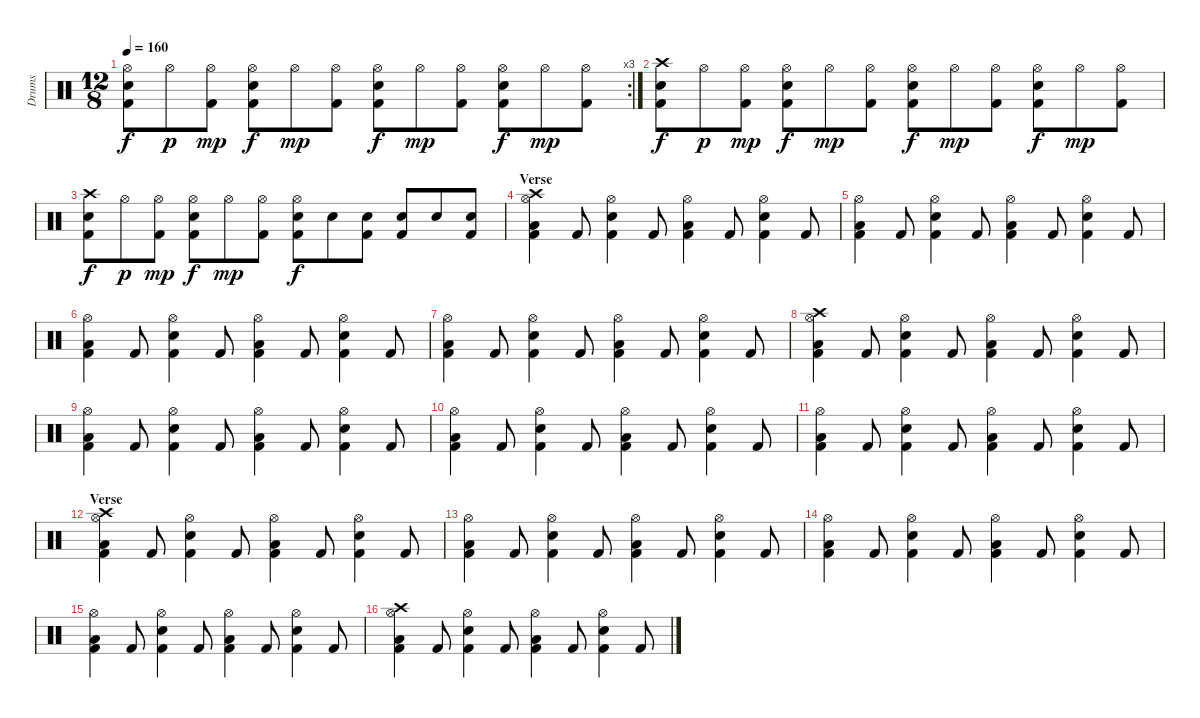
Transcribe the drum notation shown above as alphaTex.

\track ("Drums" "Drums") {instrument percussion}
\staff {score}
\articulation defaults
\rc 3
\ts (12 8)
\tempo 160
\clef neutral
\ks c
("Hi-Hat (open)" "Electric Snare (hit)" "Kick (hit) 2").8{dy f} "Hi-Hat (open)".8{dy p} ("Hi-Hat (open)" "Kick (hit) 2").8{dy mp} ("Hi-Hat (open)" "Electric Snare (hit)" "Kick (hit) 2").8{dy f} "Hi-Hat (open)".8{dy mp} ("Hi-Hat (open)" "Kick (hit) 2").8 ("Hi-Hat (open)" "Electric Snare (hit)" "Kick (hit) 2").8{dy f} "Hi-Hat (open)".8{dy mp} ("Hi-Hat (open)" "Kick (hit) 2").8 ("Hi-Hat (open)" "Electric Snare (hit)" "Kick (hit) 2").8{dy f} "Hi-Hat (open)".8{dy mp} ("Hi-Hat (open)" "Kick (hit) 2").8 |
("Crash high (hit)" "Electric Snare (hit)" "Kick (hit) 2").8{dy f} "Hi-Hat (open)".8{dy p} ("Hi-Hat (open)" "Kick (hit) 2").8{dy mp} ("Hi-Hat (open)" "Electric Snare (hit)" "Kick (hit) 2").8{dy f} "Hi-Hat (open)".8{dy mp} ("Hi-Hat (open)" "Kick (hit) 2").8 ("Hi-Hat (open)" "Electric Snare (hit)" "Kick (hit) 2").8{dy f} "Hi-Hat (open)".8{dy mp} ("Hi-Hat (open)" "Kick (hit) 2").8 ("Hi-Hat (open)" "Electric Snare (hit)" "Kick (hit) 2").8{dy f} "Hi-Hat (open)".8{dy mp} ("Hi-Hat (open)" "Kick (hit) 2").8 |
("Crash high (hit)" "Electric Snare (hit)" "Kick (hit) 2").8{dy f} "Hi-Hat (open)".8{dy p} ("Hi-Hat (open)" "Kick (hit) 2").8{dy mp} ("Hi-Hat (open)" "Electric Snare (hit)" "Kick (hit) 2").8{dy f} "Hi-Hat (open)".8{dy mp} ("Hi-Hat (open)" "Kick (hit) 2").8 ("Hi-Hat (open)" "Electric Snare (hit)" "Kick (hit) 2").8{dy f} "Electric Snare (hit)".8 ("Electric Snare (hit)" "Kick (hit) 2").8 ("Electric Snare (hit)" "Kick (hit) 2").8 "Electric Snare (hit)".8 ("Electric Snare (hit)" "Kick (hit) 2").8 |
\section ("" "Verse")
("Crash high (hit)" "Hi-Hat (open)" "Low Tom (hit)" "Kick (hit) 2").4 "Kick (hit) 2".8 ("Hi-Hat (open)" "Electric Snare (hit)" "Kick (hit) 2").4 "Kick (hit) 2".8 ("Hi-Hat (open)" "Low Tom (hit)" "Kick (hit) 2").4 "Kick (hit) 2".8 ("Hi-Hat (open)" "Electric Snare (hit)" "Kick (hit) 2").4 "Kick (hit) 2".8 |
("Hi-Hat (open)" "Low Tom (hit)" "Kick (hit) 2").4 "Kick (hit) 2".8 ("Hi-Hat (open)" "Electric Snare (hit)" "Kick (hit) 2").4 "Kick (hit) 2".8 ("Hi-Hat (open)" "Low Tom (hit)" "Kick (hit) 2").4 "Kick (hit) 2".8 ("Hi-Hat (open)" "Electric Snare (hit)" "Kick (hit) 2").4 "Kick (hit) 2".8 |
("Hi-Hat (open)" "Low Tom (hit)" "Kick (hit) 2").4 "Kick (hit) 2".8 ("Hi-Hat (open)" "Electric Snare (hit)" "Kick (hit) 2").4 "Kick (hit) 2".8 ("Hi-Hat (open)" "Low Tom (hit)" "Kick (hit) 2").4 "Kick (hit) 2".8 ("Hi-Hat (open)" "Electric Snare (hit)" "Kick (hit) 2").4 "Kick (hit) 2".8 |
("Hi-Hat (open)" "Low Tom (hit)" "Kick (hit) 2").4 "Kick (hit) 2".8 ("Hi-Hat (open)" "Electric Snare (hit)" "Kick (hit) 2").4 "Kick (hit) 2".8 ("Hi-Hat (open)" "Low Tom (hit)" "Kick (hit) 2").4 "Kick (hit) 2".8 ("Hi-Hat (open)" "Electric Snare (hit)" "Kick (hit) 2").4 "Kick (hit) 2".8 |
("Crash high (hit)" "Hi-Hat (open)" "Low Tom (hit)" "Kick (hit) 2").4 "Kick (hit) 2".8 ("Hi-Hat (open)" "Electric Snare (hit)" "Kick (hit) 2").4 "Kick (hit) 2".8 ("Hi-Hat (open)" "Low Tom (hit)" "Kick (hit) 2").4 "Kick (hit) 2".8 ("Hi-Hat (open)" "Electric Snare (hit)" "Kick (hit) 2").4 "Kick (hit) 2".8 |
("Hi-Hat (open)" "Low Tom (hit)" "Kick (hit) 2").4 "Kick (hit) 2".8 ("Hi-Hat (open)" "Electric Snare (hit)" "Kick (hit) 2").4 "Kick (hit) 2".8 ("Hi-Hat (open)" "Low Tom (hit)" "Kick (hit) 2").4 "Kick (hit) 2".8 ("Hi-Hat (open)" "Electric Snare (hit)" "Kick (hit) 2").4 "Kick (hit) 2".8 |
("Hi-Hat (open)" "Low Tom (hit)" "Kick (hit) 2").4 "Kick (hit) 2".8 ("Hi-Hat (open)" "Electric Snare (hit)" "Kick (hit) 2").4 "Kick (hit) 2".8 ("Hi-Hat (open)" "Low Tom (hit)" "Kick (hit) 2").4 "Kick (hit) 2".8 ("Hi-Hat (open)" "Electric Snare (hit)" "Kick (hit) 2").4 "Kick (hit) 2".8 |
("Hi-Hat (open)" "Low Tom (hit)" "Kick (hit) 2").4 "Kick (hit) 2".8 ("Hi-Hat (open)" "Electric Snare (hit)" "Kick (hit) 2").4 "Kick (hit) 2".8 ("Hi-Hat (open)" "Low Tom (hit)" "Kick (hit) 2").4 "Kick (hit) 2".8 ("Hi-Hat (open)" "Electric Snare (hit)" "Kick (hit) 2").4 "Kick (hit) 2".8 |
\section ("" "Verse")
("Crash high (hit)" "Hi-Hat (open)" "Low Tom (hit)" "Kick (hit) 2").4 "Kick (hit) 2".8 ("Hi-Hat (open)" "Electric Snare (hit)" "Kick (hit) 2").4 "Kick (hit) 2".8 ("Hi-Hat (open)" "Low Tom (hit)" "Kick (hit) 2").4 "Kick (hit) 2".8 ("Hi-Hat (open)" "Electric Snare (hit)" "Kick (hit) 2").4 "Kick (hit) 2".8 |
("Hi-Hat (open)" "Low Tom (hit)" "Kick (hit) 2").4 "Kick (hit) 2".8 ("Hi-Hat (open)" "Electric Snare (hit)" "Kick (hit) 2").4 "Kick (hit) 2".8 ("Hi-Hat (open)" "Low Tom (hit)" "Kick (hit) 2").4 "Kick (hit) 2".8 ("Hi-Hat (open)" "Electric Snare (hit)" "Kick (hit) 2").4 "Kick (hit) 2".8 |
("Hi-Hat (open)" "Low Tom (hit)" "Kick (hit) 2").4 "Kick (hit) 2".8 ("Hi-Hat (open)" "Electric Snare (hit)" "Kick (hit) 2").4 "Kick (hit) 2".8 ("Hi-Hat (open)" "Low Tom (hit)" "Kick (hit) 2").4 "Kick (hit) 2".8 ("Hi-Hat (open)" "Electric Snare (hit)" "Kick (hit) 2").4 "Kick (hit) 2".8 |
("Hi-Hat (open)" "Low Tom (hit)" "Kick (hit) 2").4 "Kick (hit) 2".8 ("Hi-Hat (open)" "Electric Snare (hit)" "Kick (hit) 2").4 "Kick (hit) 2".8 ("Hi-Hat (open)" "Low Tom (hit)" "Kick (hit) 2").4 "Kick (hit) 2".8 ("Hi-Hat (open)" "Electric Snare (hit)" "Kick (hit) 2").4 "Kick (hit) 2".8 |
("Crash high (hit)" "Hi-Hat (open)" "Low Tom (hit)" "Kick (hit) 2").4 "Kick (hit) 2".8 ("Hi-Hat (open)" "Electric Snare (hit)" "Kick (hit) 2").4 "Kick (hit) 2".8 ("Hi-Hat (open)" "Low Tom (hit)" "Kick (hit) 2").4 "Kick (hit) 2".8 ("Hi-Hat (open)" "Electric Snare (hit)" "Kick (hit) 2").4 "Kick (hit) 2".8
